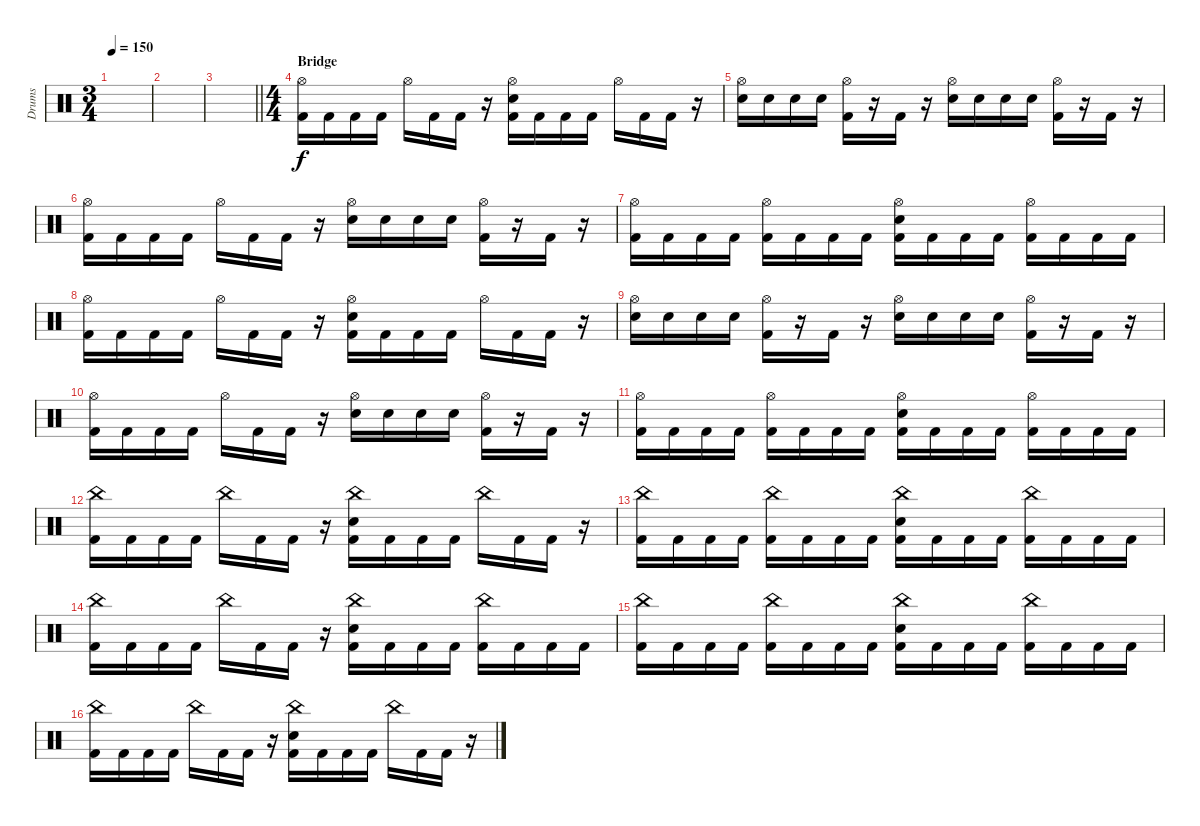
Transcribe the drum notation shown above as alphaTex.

\track ("Drums" "Drums") {instrument percussion}
\staff {score}
\articulation defaults
\ts (3 4)
\tempo 150
\clef neutral
\ks c
|
|
\barLineRight lightlight
|
\ts (4 4)
\section ("" "Bridge")
("Hi-Hat (open)" "Kick (hit) 2").16 "Kick (hit) 2".16 "Kick (hit) 2".16 "Kick (hit) 2".16 "Hi-Hat (open)".16 "Kick (hit) 2".16 "Kick (hit) 2".16 r.16 ("Hi-Hat (open)" "Electric Snare (hit)" "Kick (hit) 2").16 "Kick (hit) 2".16 "Kick (hit) 2".16 "Kick (hit) 2".16 "Hi-Hat (open)".16 "Kick (hit) 2".16 "Kick (hit) 2".16 r.16 |
("Hi-Hat (open)" "Electric Snare (hit)").16 "Electric Snare (hit)".16 "Electric Snare (hit)".16 "Electric Snare (hit)".16 ("Hi-Hat (open)" "Kick (hit) 2").16 r.16 "Kick (hit) 2".16 r.16 ("Hi-Hat (open)" "Electric Snare (hit)").16 "Electric Snare (hit)".16 "Electric Snare (hit)".16 "Electric Snare (hit)".16 ("Hi-Hat (open)" "Kick (hit) 2").16 r.16 "Kick (hit) 2".16 r.16 |
("Hi-Hat (open)" "Kick (hit) 2").16 "Kick (hit) 2".16 "Kick (hit) 2".16 "Kick (hit) 2".16 "Hi-Hat (open)".16 "Kick (hit) 2".16 "Kick (hit) 2".16 r.16 ("Hi-Hat (open)" "Electric Snare (hit)").16 "Electric Snare (hit)".16 "Electric Snare (hit)".16 "Electric Snare (hit)".16 ("Hi-Hat (open)" "Kick (hit) 2").16 r.16 "Kick (hit) 2".16 r.16 |
("Hi-Hat (open)" "Kick (hit) 2").16 "Kick (hit) 2".16 "Kick (hit) 2".16 "Kick (hit) 2".16 ("Hi-Hat (open)" "Kick (hit) 2").16 "Kick (hit) 2".16 "Kick (hit) 2".16 "Kick (hit) 2".16 ("Hi-Hat (open)" "Electric Snare (hit)" "Kick (hit) 2").16 "Kick (hit) 2".16 "Kick (hit) 2".16 "Kick (hit) 2".16 ("Hi-Hat (open)" "Kick (hit) 2").16 "Kick (hit) 2".16 "Kick (hit) 2".16 "Kick (hit) 2".16 |
("Hi-Hat (open)" "Kick (hit) 2").16 "Kick (hit) 2".16 "Kick (hit) 2".16 "Kick (hit) 2".16 "Hi-Hat (open)".16 "Kick (hit) 2".16 "Kick (hit) 2".16 r.16 ("Hi-Hat (open)" "Electric Snare (hit)" "Kick (hit) 2").16 "Kick (hit) 2".16 "Kick (hit) 2".16 "Kick (hit) 2".16 "Hi-Hat (open)".16 "Kick (hit) 2".16 "Kick (hit) 2".16 r.16 |
("Hi-Hat (open)" "Electric Snare (hit)").16 "Electric Snare (hit)".16 "Electric Snare (hit)".16 "Electric Snare (hit)".16 ("Hi-Hat (open)" "Kick (hit) 2").16 r.16 "Kick (hit) 2".16 r.16 ("Hi-Hat (open)" "Electric Snare (hit)").16 "Electric Snare (hit)".16 "Electric Snare (hit)".16 "Electric Snare (hit)".16 ("Hi-Hat (open)" "Kick (hit) 2").16 r.16 "Kick (hit) 2".16 r.16 |
("Hi-Hat (open)" "Kick (hit) 2").16 "Kick (hit) 2".16 "Kick (hit) 2".16 "Kick (hit) 2".16 "Hi-Hat (open)".16 "Kick (hit) 2".16 "Kick (hit) 2".16 r.16 ("Hi-Hat (open)" "Electric Snare (hit)").16 "Electric Snare (hit)".16 "Electric Snare (hit)".16 "Electric Snare (hit)".16 ("Hi-Hat (open)" "Kick (hit) 2").16 r.16 "Kick (hit) 2".16 r.16 |
("Hi-Hat (open)" "Kick (hit) 2").16 "Kick (hit) 2".16 "Kick (hit) 2".16 "Kick (hit) 2".16 ("Hi-Hat (open)" "Kick (hit) 2").16 "Kick (hit) 2".16 "Kick (hit) 2".16 "Kick (hit) 2".16 ("Hi-Hat (open)" "Electric Snare (hit)" "Kick (hit) 2").16 "Kick (hit) 2".16 "Kick (hit) 2".16 "Kick (hit) 2".16 ("Hi-Hat (open)" "Kick (hit) 2").16 "Kick (hit) 2".16 "Kick (hit) 2".16 "Kick (hit) 2".16 |
("China (hit)" "Kick (hit) 2").16 "Kick (hit) 2".16 "Kick (hit) 2".16 "Kick (hit) 2".16 "China (hit)".16 "Kick (hit) 2".16 "Kick (hit) 2".16 r.16 ("China (hit)" "Electric Snare (hit)" "Kick (hit) 2").16 "Kick (hit) 2".16 "Kick (hit) 2".16 "Kick (hit) 2".16 "China (hit)".16 "Kick (hit) 2".16 "Kick (hit) 2".16 r.16 |
("China (hit)" "Kick (hit) 2").16 "Kick (hit) 2".16 "Kick (hit) 2".16 "Kick (hit) 2".16 ("China (hit)" "Kick (hit) 2").16 "Kick (hit) 2".16 "Kick (hit) 2".16 "Kick (hit) 2".16 ("China (hit)" "Electric Snare (hit)" "Kick (hit) 2").16 "Kick (hit) 2".16 "Kick (hit) 2".16 "Kick (hit) 2".16 ("China (hit)" "Kick (hit) 2").16 "Kick (hit) 2".16 "Kick (hit) 2".16 "Kick (hit) 2".16 |
("China (hit)" "Kick (hit) 2").16 "Kick (hit) 2".16 "Kick (hit) 2".16 "Kick (hit) 2".16 "China (hit)".16 "Kick (hit) 2".16 "Kick (hit) 2".16 r.16 ("China (hit)" "Electric Snare (hit)" "Kick (hit) 2").16 "Kick (hit) 2".16 "Kick (hit) 2".16 "Kick (hit) 2".16 ("China (hit)" "Kick (hit) 2").16 "Kick (hit) 2".16 "Kick (hit) 2".16 "Kick (hit) 2".16 |
("China (hit)" "Kick (hit) 2").16 "Kick (hit) 2".16 "Kick (hit) 2".16 "Kick (hit) 2".16 ("China (hit)" "Kick (hit) 2").16 "Kick (hit) 2".16 "Kick (hit) 2".16 "Kick (hit) 2".16 ("China (hit)" "Electric Snare (hit)" "Kick (hit) 2").16 "Kick (hit) 2".16 "Kick (hit) 2".16 "Kick (hit) 2".16 ("China (hit)" "Kick (hit) 2").16 "Kick (hit) 2".16 "Kick (hit) 2".16 "Kick (hit) 2".16 |
("China (hit)" "Kick (hit) 2").16 "Kick (hit) 2".16 "Kick (hit) 2".16 "Kick (hit) 2".16 "China (hit)".16 "Kick (hit) 2".16 "Kick (hit) 2".16 r.16 ("China (hit)" "Electric Snare (hit)" "Kick (hit) 2").16 "Kick (hit) 2".16 "Kick (hit) 2".16 "Kick (hit) 2".16 "China (hit)".16 "Kick (hit) 2".16 "Kick (hit) 2".16 r.16
